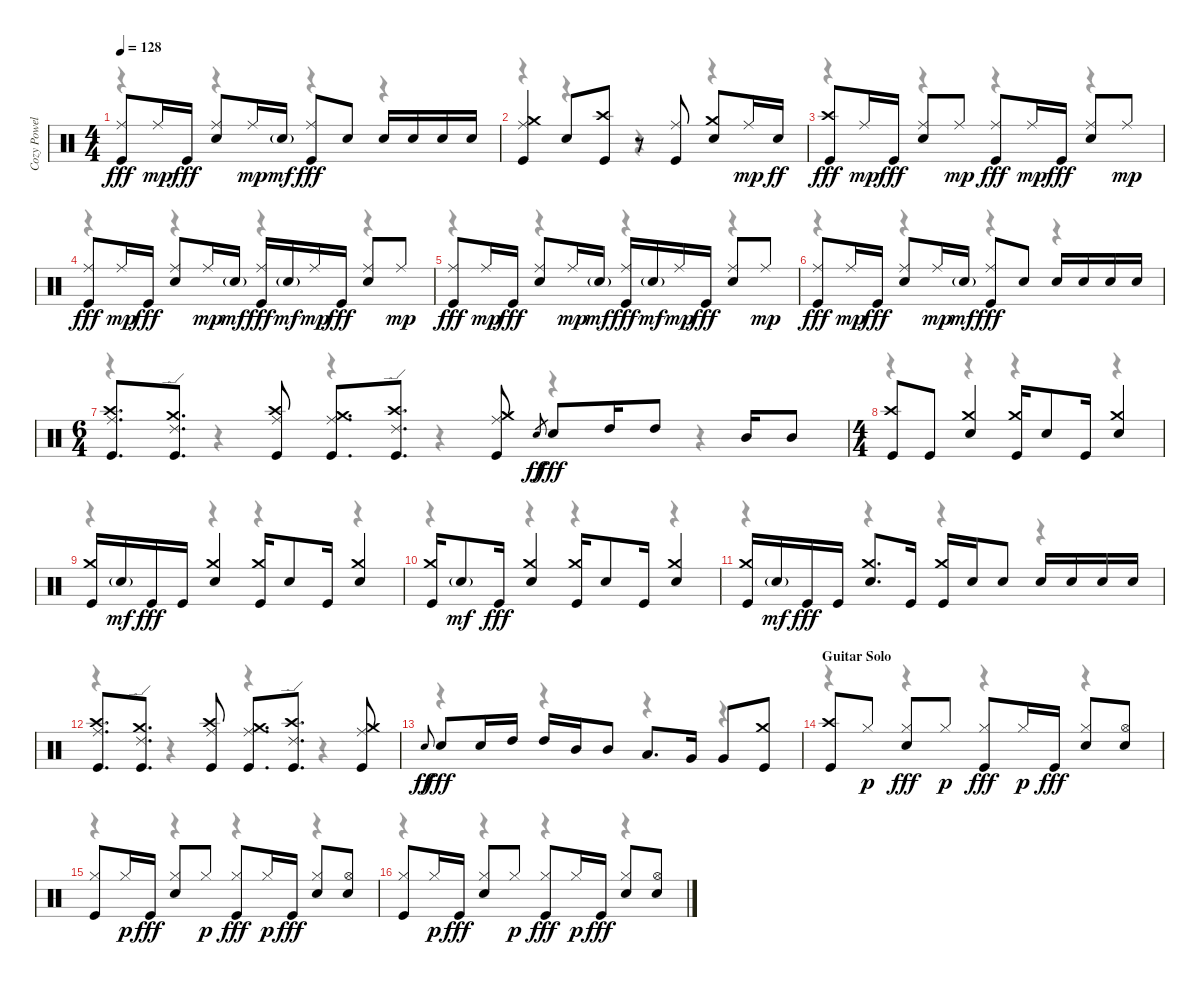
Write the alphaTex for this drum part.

\track ("Cozy Powell - Drums" "Cozy Powel") {instrument percussion}
\staff {score}
\articulation defaults
\voice
\ts (4 4)
\tempo 128
\clef neutral
\ks c
("Kick (hit)" "Ride (middle)").8{dy fff} "Ride (middle)".16{dy mp} "Kick (hit)".16{dy fff} ("Snare (hit) 2" "Ride (middle)").8 "Ride (middle)".16{dy mp} "Snare (hit) 2"{g}.16{dy mf} ("Kick (hit)" "Ride (middle)").8{dy fff} "Snare (hit) 2".8 "Snare (hit) 2".16 "Snare (hit) 2".16 "Snare (hit) 2".16 "Snare (hit) 2".16 |
("Kick (hit)" "Ride (middle)" "Crash medium (hit)").4 "Snare (hit) 2".8 ("Kick (hit)" "Crash high (hit)").8 r.8 ("Kick (hit)" "Ride (middle)").8 ("Snare (hit) 2" "Crash medium (hit)").8 "Ride (middle)".16{dy mp} "Snare (hit) 2".16{dy ff} |
("Kick (hit)" "Crash high (hit)").8{dy fff} "Ride (middle)".16{dy mp} "Kick (hit)".16{dy fff} ("Snare (hit) 2" "Ride (middle)").8 "Ride (middle)".8{dy mp} ("Kick (hit)" "Ride (middle)").8{dy fff} "Ride (middle)".16{dy mp} "Kick (hit)".16{dy fff} ("Snare (hit) 2" "Ride (middle)").8 "Ride (middle)".8{dy mp} |
("Kick (hit)" "Ride (middle)").8{dy fff} "Ride (middle)".16{dy mp} "Kick (hit)".16{dy fff} ("Snare (hit) 2" "Ride (middle)").8 "Ride (middle)".16{dy mp} "Snare (hit) 2"{g}.16{dy mf} ("Kick (hit)" "Ride (middle)").16{dy fff} "Snare (hit) 2"{g}.16{dy mf} "Ride (middle)".16{dy mp} "Kick (hit)".16{dy fff} ("Snare (hit) 2" "Ride (middle)").8 "Ride (middle)".8{dy mp} |
("Kick (hit)" "Ride (middle)").8{dy fff} "Ride (middle)".16{dy mp} "Kick (hit)".16{dy fff} ("Snare (hit) 2" "Ride (middle)").8 "Ride (middle)".16{dy mp} "Snare (hit) 2"{g}.16{dy mf} ("Kick (hit)" "Ride (middle)").16{dy fff} "Snare (hit) 2"{g}.16{dy mf} "Ride (middle)".16{dy mp} "Kick (hit)".16{dy fff} ("Snare (hit) 2" "Ride (middle)").8 "Ride (middle)".8{dy mp} |
("Kick (hit)" "Ride (middle)").8{dy fff} "Ride (middle)".16{dy mp} "Kick (hit)".16{dy fff} ("Snare (hit) 2" "Ride (middle)").8 "Ride (middle)".16{dy mp} "Snare (hit) 2"{g}.16{dy mf} ("Kick (hit)" "Ride (middle)").8{dy fff} "Snare (hit) 2".8 "Snare (hit) 2".16 "Snare (hit) 2".16 "Snare (hit) 2".16 "Snare (hit) 2".16 |
\ts (6 4)
("Kick (hit)" "Ride (middle)" "Crash high (hit)").8{d} ("Kick (hit)" "Ride (edge) 2" "Crash medium (hit)").8{d} ("Kick (hit)" "Ride (middle)" "Crash high (hit)").8 ("Kick (hit)" "Ride (middle)" "Crash medium (hit)").8{d} ("Kick (hit)" "Ride (edge) 2" "Crash high (hit)").8{d} ("Kick (hit)" "Ride (middle)" "Crash medium (hit)").8 "Snare (hit)".8{gr dy ff} "Snare (hit) 2".8{dy fff} "High Tom (hit)".16 "High Tom (hit)".8 "Mid Tom (hit)".16 "Mid Tom (hit)".8 |
\ts (4 4)
("Kick (hit)" "Crash high (hit)").8 "Kick (hit)".8 ("Snare (hit) 2" "Crash medium (hit)").4 ("Kick (hit)" "Crash medium (hit)").16 "Snare (hit) 2".8 "Kick (hit)".16 ("Snare (hit) 2" "Crash medium (hit)").4 |
("Kick (hit)" "Crash medium (hit)").16 "Snare (hit) 2"{g}.16{dy mf} "Kick (hit)".16{dy fff} "Kick (hit)".16 ("Snare (hit) 2" "Crash medium (hit)").4 ("Kick (hit)" "Crash medium (hit)").16 "Snare (hit) 2".8 "Kick (hit)".16 ("Snare (hit) 2" "Crash medium (hit)").4 |
("Kick (hit)" "Crash medium (hit)").16 "Snare (hit) 2"{g}.8{dy mf} "Kick (hit)".16{dy fff} ("Snare (hit) 2" "Crash medium (hit)").4 ("Kick (hit)" "Crash medium (hit)").16 "Snare (hit) 2".8 "Kick (hit)".16 ("Snare (hit) 2" "Crash medium (hit)").4 |
("Kick (hit)" "Crash medium (hit)").16 "Snare (hit) 2"{g}.16{dy mf} "Kick (hit)".16{dy fff} "Kick (hit)".16 ("Snare (hit) 2" "Crash medium (hit)").8{d} "Kick (hit)".16 ("Kick (hit)" "Crash medium (hit)").16 "Snare (hit) 2".16 "Snare (hit) 2".8 "Snare (hit) 2".16 "Snare (hit) 2".16 "Snare (hit) 2".16 "Snare (hit) 2".16 |
("Kick (hit)" "Ride (middle)" "Crash high (hit)").8{d} ("Kick (hit)" "Ride (edge) 2" "Crash medium (hit)").8{d} ("Kick (hit)" "Ride (middle)" "Crash high (hit)").8 ("Kick (hit)" "Ride (middle)" "Crash medium (hit)").8{d} ("Kick (hit)" "Ride (edge) 2" "Crash high (hit)").8{d} ("Kick (hit)" "Ride (middle)" "Crash medium (hit)").8 |
"Snare (hit)".8{gr onbeat dy ff} "Snare (hit) 2".8{dy fff} "Snare (hit) 2".16 "High Tom (hit)".16 "High Tom (hit)".16 "Mid Tom (hit)".16 "Mid Tom (hit)".8 "Low Tom (hit)".8{d} "Very Low Tom (hit)".16 "Very Low Tom (hit)".8 ("Kick (hit)" "Crash medium (hit)").8 |
\section ("" "Guitar Solo")
("Kick (hit)" "Crash high (hit)").8 "Hi-Hat (closed)".8{dy p} ("Snare (hit) 2" "Hi-Hat (closed)").8{dy fff} "Hi-Hat (closed)".8{dy p} ("Kick (hit)" "Hi-Hat (closed)").8{dy fff} "Hi-Hat (closed)".16{dy p} "Kick (hit)".16{dy fff} ("Snare (hit) 2" "Hi-Hat (closed)").8 ("Snare (hit) 2" "Hi-Hat (open)").8 |
("Kick (hit)" "Hi-Hat (closed)").8 "Hi-Hat (closed)".16{dy p} "Kick (hit)".16{dy fff} ("Snare (hit) 2" "Hi-Hat (closed)").8 "Hi-Hat (closed)".8{dy p} ("Kick (hit)" "Hi-Hat (closed)").8{dy fff} "Hi-Hat (closed)".16{dy p} "Kick (hit)".16{dy fff} ("Snare (hit) 2" "Hi-Hat (closed)").8 ("Snare (hit) 2" "Hi-Hat (open)").8 |
("Kick (hit)" "Hi-Hat (closed)").8 "Hi-Hat (closed)".16{dy p} "Kick (hit)".16{dy fff} ("Snare (hit) 2" "Hi-Hat (closed)").8 "Hi-Hat (closed)".8{dy p} ("Kick (hit)" "Hi-Hat (closed)").8{dy fff} "Hi-Hat (closed)".16{dy p} "Kick (hit)".16{dy fff} ("Snare (hit) 2" "Hi-Hat (closed)").8 ("Snare (hit) 2" "Hi-Hat (open)").8
\voice
\clef neutral
\ottava regular
\simile none
\ks c
r.4{dy f} r.4 r.4 r.4 |
r.4 r.4 r.4 r.4 |
r.4 r.4 r.4 r.4 |
r.4 r.4 r.4 r.4 |
r.4 r.4 r.4 r.4 |
r.4 r.4 r.4 r.4 |
r.4 r.4 r.4 r.4 r.4 r.4 |
r.4 r.4 r.4 r.4 |
r.4 r.4 r.4 r.4 |
r.4 r.4 r.4 r.4 |
r.4 r.4 r.4 r.4 |
r.4 r.4 r.4 r.4 |
r.4 r.4 r.4 r.4 |
r.4 r.4 r.4 r.4 |
r.4 r.4 r.4 r.4 |
r.4 r.4 r.4 r.4
